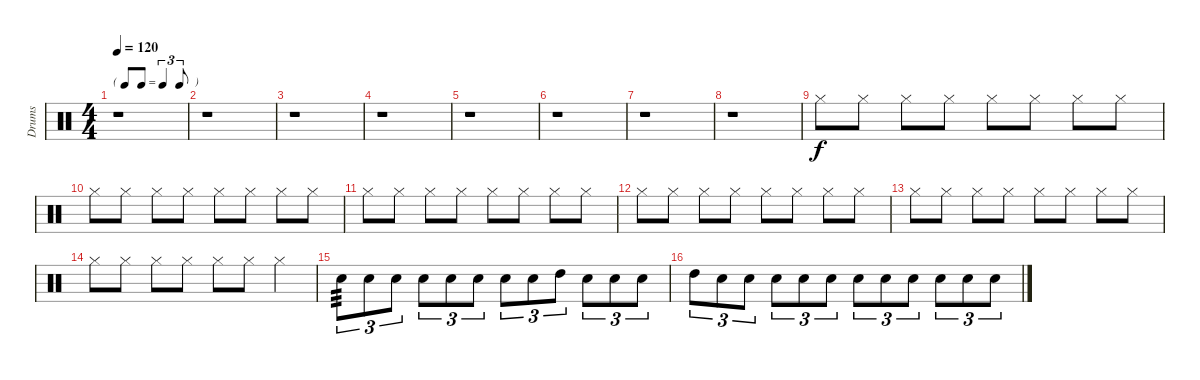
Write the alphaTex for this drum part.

\track ("Drums" "Drums") {instrument percussion}
\staff {score}
\articulation defaults
\ts (4 4)
\tf triplet8th
\tempo 120
\clef neutral
\ks c
r.1{dy f} |
r.1 |
r.1 |
r.1 |
r.1 |
r.1 |
r.1 |
r.1 |
"Hi-Hat (closed)".8 "Hi-Hat (closed)".8 "Hi-Hat (closed)".8 "Hi-Hat (closed)".8 "Hi-Hat (closed)".8 "Hi-Hat (closed)".8 "Hi-Hat (closed)".8 "Hi-Hat (closed)".8 |
"Hi-Hat (closed)".8 "Hi-Hat (closed)".8 "Hi-Hat (closed)".8 "Hi-Hat (closed)".8 "Hi-Hat (closed)".8 "Hi-Hat (closed)".8 "Hi-Hat (closed)".8 "Hi-Hat (closed)".8 |
"Hi-Hat (closed)".8 "Hi-Hat (closed)".8 "Hi-Hat (closed)".8 "Hi-Hat (closed)".8 "Hi-Hat (closed)".8 "Hi-Hat (closed)".8 "Hi-Hat (closed)".8 "Hi-Hat (closed)".8 |
"Hi-Hat (closed)".8 "Hi-Hat (closed)".8 "Hi-Hat (closed)".8 "Hi-Hat (closed)".8 "Hi-Hat (closed)".8 "Hi-Hat (closed)".8 "Hi-Hat (closed)".8 "Hi-Hat (closed)".8 |
"Hi-Hat (closed)".8 "Hi-Hat (closed)".8 "Hi-Hat (closed)".8 "Hi-Hat (closed)".8 "Hi-Hat (closed)".8 "Hi-Hat (closed)".8 "Hi-Hat (closed)".8 "Hi-Hat (closed)".8 |
"Hi-Hat (closed)".8 "Hi-Hat (closed)".8 "Hi-Hat (closed)".8 "Hi-Hat (closed)".8 "Hi-Hat (closed)".8 "Hi-Hat (closed)".8 "Hi-Hat (closed)".4 |
"Electric Snare (hit)".8{tu (3 2) tp 3} "Electric Snare (hit)".8{tu (3 2)} "Electric Snare (hit)".8{tu (3 2)} "Electric Snare (hit)".8{tu (3 2)} "Electric Snare (hit)".8{tu (3 2)} "Electric Snare (hit)".8{tu (3 2)} "Electric Snare (hit)".8{tu (3 2)} "Electric Snare (hit)".8{tu (3 2)} "High Tom (hit)".8{tu (3 2)} "Electric Snare (hit)".8{tu (3 2)} "Electric Snare (hit)".8{tu (3 2)} "Electric Snare (hit)".8{tu (3 2)} |
"High Tom (hit)".8{tu (3 2)} "Electric Snare (hit)".8{tu (3 2)} "Electric Snare (hit)".8{tu (3 2)} "Electric Snare (hit)".8{tu (3 2)} "Electric Snare (hit)".8{tu (3 2)} "Electric Snare (hit)".8{tu (3 2)} "Electric Snare (hit)".8{tu (3 2)} "Electric Snare (hit)".8{tu (3 2)} "Electric Snare (hit)".8{tu (3 2)} "Electric Snare (hit)".8{tu (3 2)} "Electric Snare (hit)".8{tu (3 2)} "Electric Snare (hit)".8{tu (3 2)}
